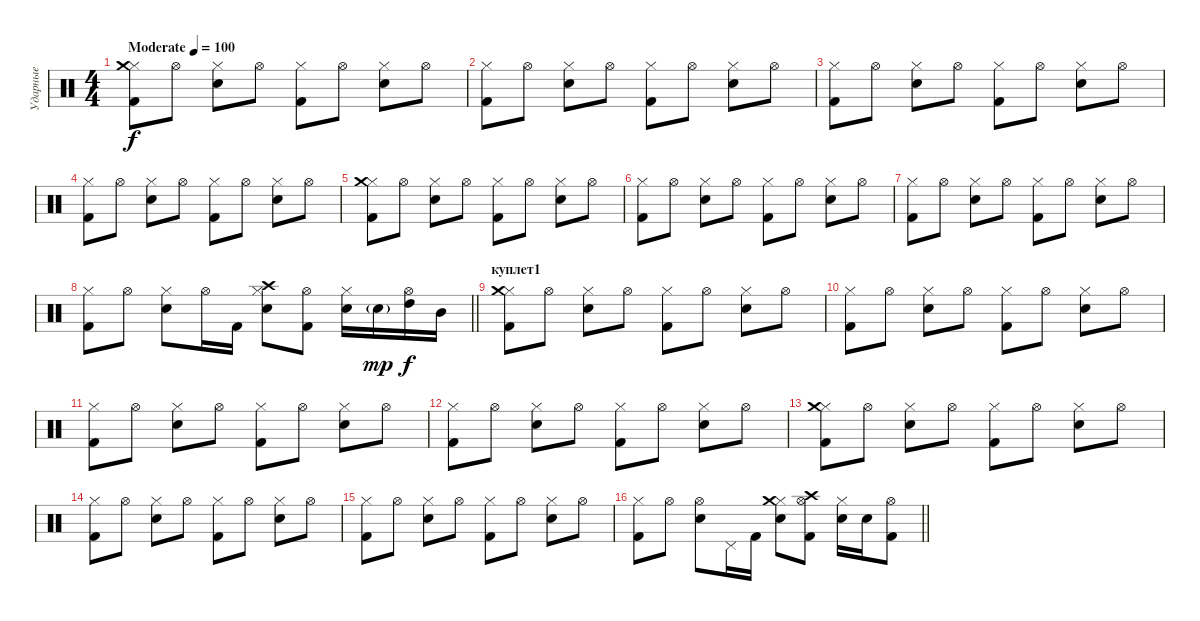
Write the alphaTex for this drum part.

\track ("Ударные" "Ударные") {instrument percussion}
\staff {score}
\articulation defaults
\ts (4 4)
\tempo (100 "Moderate")
\clef neutral
\ks c
("Kick (hit) 2" "Hi-Hat (closed)" "Crash medium (hit)").8{dy f} "Hi-Hat (open)".8 ("Snare (hit) 2" "Hi-Hat (closed)").8 "Hi-Hat (open)".8 ("Kick (hit) 2" "Hi-Hat (closed)").8 "Hi-Hat (open)".8 ("Snare (hit) 2" "Hi-Hat (closed)").8 "Hi-Hat (open)".8 |
("Kick (hit) 2" "Hi-Hat (closed)").8 "Hi-Hat (open)".8 ("Snare (hit) 2" "Hi-Hat (closed)").8 "Hi-Hat (open)".8 ("Kick (hit) 2" "Hi-Hat (closed)").8 "Hi-Hat (open)".8 ("Snare (hit) 2" "Hi-Hat (closed)").8 "Hi-Hat (open)".8 |
("Kick (hit) 2" "Hi-Hat (closed)").8 "Hi-Hat (open)".8 ("Snare (hit) 2" "Hi-Hat (closed)").8 "Hi-Hat (open)".8 ("Kick (hit) 2" "Hi-Hat (closed)").8 "Hi-Hat (open)".8 ("Snare (hit) 2" "Hi-Hat (closed)").8 "Hi-Hat (open)".8 |
("Kick (hit) 2" "Hi-Hat (closed)").8 "Hi-Hat (open)".8 ("Snare (hit) 2" "Hi-Hat (closed)").8 "Hi-Hat (open)".8 ("Kick (hit) 2" "Hi-Hat (closed)").8 "Hi-Hat (open)".8 ("Snare (hit) 2" "Hi-Hat (closed)").8 "Hi-Hat (open)".8 |
("Kick (hit) 2" "Hi-Hat (closed)" "Crash medium (hit)").8 "Hi-Hat (open)".8 ("Snare (hit) 2" "Hi-Hat (closed)").8 "Hi-Hat (open)".8 ("Kick (hit) 2" "Hi-Hat (closed)").8 "Hi-Hat (open)".8 ("Snare (hit) 2" "Hi-Hat (closed)").8 "Hi-Hat (open)".8 |
("Kick (hit) 2" "Hi-Hat (closed)").8 "Hi-Hat (open)".8 ("Snare (hit) 2" "Hi-Hat (closed)").8 "Hi-Hat (open)".8 ("Kick (hit) 2" "Hi-Hat (closed)").8 "Hi-Hat (open)".8 ("Snare (hit) 2" "Hi-Hat (closed)").8 "Hi-Hat (open)".8 |
("Kick (hit) 2" "Hi-Hat (closed)").8 "Hi-Hat (open)".8 ("Snare (hit) 2" "Hi-Hat (closed)").8 "Hi-Hat (open)".8 ("Kick (hit) 2" "Hi-Hat (closed)").8 "Hi-Hat (open)".8 ("Snare (hit) 2" "Hi-Hat (closed)").8 "Hi-Hat (open)".8 |
\barLineRight lightlight
("Kick (hit) 2" "Hi-Hat (closed)").8 "Hi-Hat (open)".8 ("Snare (hit) 2" "Hi-Hat (closed)").8 "Hi-Hat (open)".16 "Kick (hit) 2".16 ("Snare (hit) 2" "Hi-Hat (closed)" "Crash high (hit)").8 ("Kick (hit) 2" "Hi-Hat (open)").8 ("Snare (hit) 2" "Hi-Hat (closed)").16 "Snare (hit) 2"{g}.16{dy mp} ("Hi-Hat (open)" "High Tom (hit)").16{dy f} "Mid Tom (hit)".16 |
\section ("" "куплет1")
("Kick (hit) 2" "Hi-Hat (closed)" "Crash medium (hit)").8 "Hi-Hat (open)".8 ("Snare (hit) 2" "Hi-Hat (closed)").8 "Hi-Hat (open)".8 ("Kick (hit) 2" "Hi-Hat (closed)").8 "Hi-Hat (open)".8 ("Snare (hit) 2" "Hi-Hat (closed)").8 "Hi-Hat (open)".8 |
("Kick (hit) 2" "Hi-Hat (closed)").8 "Hi-Hat (open)".8 ("Snare (hit) 2" "Hi-Hat (closed)").8 "Hi-Hat (open)".8 ("Kick (hit) 2" "Hi-Hat (closed)").8 "Hi-Hat (open)".8 ("Snare (hit) 2" "Hi-Hat (closed)").8 "Hi-Hat (open)".8 |
("Kick (hit) 2" "Hi-Hat (closed)").8 "Hi-Hat (open)".8 ("Snare (hit) 2" "Hi-Hat (closed)").8 "Hi-Hat (open)".8 ("Kick (hit) 2" "Hi-Hat (closed)").8 "Hi-Hat (open)".8 ("Snare (hit) 2" "Hi-Hat (closed)").8 "Hi-Hat (open)".8 |
("Kick (hit) 2" "Hi-Hat (closed)").8 "Hi-Hat (open)".8 ("Snare (hit) 2" "Hi-Hat (closed)").8 "Hi-Hat (open)".8 ("Kick (hit) 2" "Hi-Hat (closed)").8 "Hi-Hat (open)".8 ("Snare (hit) 2" "Hi-Hat (closed)").8 "Hi-Hat (open)".8 |
("Kick (hit) 2" "Hi-Hat (closed)" "Crash medium (hit)").8 "Hi-Hat (open)".8 ("Snare (hit) 2" "Hi-Hat (closed)").8 "Hi-Hat (open)".8 ("Kick (hit) 2" "Hi-Hat (closed)").8 "Hi-Hat (open)".8 ("Snare (hit) 2" "Hi-Hat (closed)").8 "Hi-Hat (open)".8 |
("Kick (hit) 2" "Hi-Hat (closed)").8 "Hi-Hat (open)".8 ("Snare (hit) 2" "Hi-Hat (closed)").8 "Hi-Hat (open)".8 ("Kick (hit) 2" "Hi-Hat (closed)").8 "Hi-Hat (open)".8 ("Snare (hit) 2" "Hi-Hat (closed)").8 "Hi-Hat (open)".8 |
("Kick (hit) 2" "Hi-Hat (closed)").8 "Hi-Hat (open)".8 ("Snare (hit) 2" "Hi-Hat (closed)").8 "Hi-Hat (open)".8 ("Kick (hit) 2" "Hi-Hat (closed)").8 "Hi-Hat (open)".8 ("Snare (hit) 2" "Hi-Hat (closed)").8 "Hi-Hat (open)".8 |
\barLineRight lightlight
("Kick (hit) 2" "Hi-Hat (closed)").8 "Hi-Hat (open)".8 ("Snare (hit) 2" "Hi-Hat (open)").8 "Pedal Hi-Hat (hit)".16 "Kick (hit) 2".16 ("Snare (hit) 2" "Hi-Hat (closed)" "Crash medium (hit)").8 ("Kick (hit) 2" "Hi-Hat (open)" "Crash high (hit)").8 ("Snare (hit) 2" "Hi-Hat (closed)").16 "Snare (hit) 2".16 ("Kick (hit) 2" "Hi-Hat (open)").8
